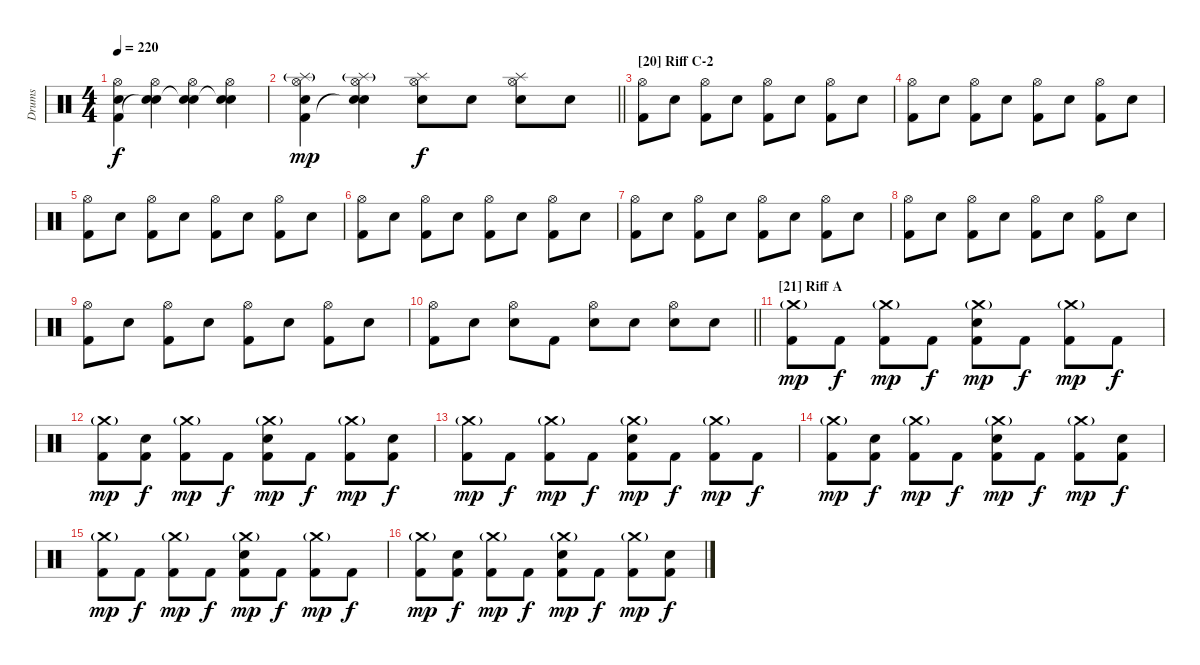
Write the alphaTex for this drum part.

\track ("Drums" "Drums") {instrument percussion}
\staff {score}
\articulation defaults
\ts (4 4)
\tempo 220
\clef neutral
\ks c
("Hi-Hat (open)" "Snare (hit) 2" "Kick (hit) 2"{t}).4{dy f} ("Hi-Hat (open)" "Snare (hit) 2" "Snare (hit)"{t}).4 ("Hi-Hat (open)" "Snare (hit) 2" "Snare (hit)"{t}).4 ("Hi-Hat (open)" "Snare (hit) 2" "Snare (hit)"{t}).4 |
\barLineRight lightlight
("Splash (hit)"{g} "Hi-Hat (open)" "Snare (hit) 2" "Kick (hit) 2").4{dy mp} ("Splash (hit)"{g} "Hi-Hat (open)" "Snare (hit) 2" "Snare (hit)"{t}).4 ("Splash (hit)" "Hi-Hat (open)" "Snare (hit) 2").8{dy f} "Snare (hit) 2".8 ("Splash (hit)" "Hi-Hat (open)" "Snare (hit) 2").8 "Snare (hit) 2".8 |
\section ("" "[20] Riff C-2")
("Hi-Hat (open)" "Kick (hit) 2").8 "Snare (hit) 2".8 ("Hi-Hat (open)" "Kick (hit) 2").8 "Snare (hit) 2".8 ("Hi-Hat (open)" "Kick (hit) 2").8 "Snare (hit) 2".8 ("Hi-Hat (open)" "Kick (hit) 2").8 "Snare (hit) 2".8 |
("Hi-Hat (open)" "Kick (hit) 2").8 "Snare (hit) 2".8 ("Hi-Hat (open)" "Kick (hit) 2").8 "Snare (hit) 2".8 ("Hi-Hat (open)" "Kick (hit) 2").8 "Snare (hit) 2".8 ("Hi-Hat (open)" "Kick (hit) 2").8 "Snare (hit) 2".8 |
("Hi-Hat (open)" "Kick (hit) 2").8 "Snare (hit) 2".8 ("Hi-Hat (open)" "Kick (hit) 2").8 "Snare (hit) 2".8 ("Hi-Hat (open)" "Kick (hit) 2").8 "Snare (hit) 2".8 ("Hi-Hat (open)" "Kick (hit) 2").8 "Snare (hit) 2".8 |
("Hi-Hat (open)" "Kick (hit) 2").8 "Snare (hit) 2".8 ("Hi-Hat (open)" "Kick (hit) 2").8 "Snare (hit) 2".8 ("Hi-Hat (open)" "Kick (hit) 2").8 "Snare (hit) 2".8 ("Hi-Hat (open)" "Kick (hit) 2").8 "Snare (hit) 2".8 |
("Hi-Hat (open)" "Kick (hit) 2").8 "Snare (hit) 2".8 ("Hi-Hat (open)" "Kick (hit) 2").8 "Snare (hit) 2".8 ("Hi-Hat (open)" "Kick (hit) 2").8 "Snare (hit) 2".8 ("Hi-Hat (open)" "Kick (hit) 2").8 "Snare (hit) 2".8 |
("Hi-Hat (open)" "Kick (hit) 2").8 "Snare (hit) 2".8 ("Hi-Hat (open)" "Kick (hit) 2").8 "Snare (hit) 2".8 ("Hi-Hat (open)" "Kick (hit) 2").8 "Snare (hit) 2".8 ("Hi-Hat (open)" "Kick (hit) 2").8 "Snare (hit) 2".8 |
("Hi-Hat (open)" "Kick (hit) 2").8 "Snare (hit) 2".8 ("Hi-Hat (open)" "Kick (hit) 2").8 "Snare (hit) 2".8 ("Hi-Hat (open)" "Kick (hit) 2").8 "Snare (hit) 2".8 ("Hi-Hat (open)" "Kick (hit) 2").8 "Snare (hit) 2".8 |
\barLineRight lightlight
("Hi-Hat (open)" "Kick (hit) 2").8 "Snare (hit) 2".8 ("Hi-Hat (open)" "Snare (hit) 2").8 "Kick (hit) 2".8 ("Hi-Hat (open)" "Snare (hit) 2").8 "Snare (hit) 2".8 ("Hi-Hat (open)" "Snare (hit) 2").8 "Snare (hit) 2".8 |
\section ("" "[21] Riff A")
("Crash medium (hit)"{g} "Kick (hit) 2").8{dy mp} "Kick (hit) 2".8{dy f} ("Crash medium (hit)"{g} "Kick (hit) 2").8{dy mp} "Kick (hit) 2".8{dy f} ("Crash medium (hit)"{g} "Snare (hit) 2" "Kick (hit) 2").8{dy mp} "Kick (hit) 2".8{dy f} ("Crash medium (hit)"{g} "Kick (hit) 2").8{dy mp} "Kick (hit) 2".8{dy f} |
("Crash medium (hit)"{g} "Kick (hit) 2").8{dy mp} ("Snare (hit) 2" "Kick (hit) 2").8{dy f} ("Crash medium (hit)"{g} "Kick (hit) 2").8{dy mp} "Kick (hit) 2".8{dy f} ("Crash medium (hit)"{g} "Snare (hit) 2" "Kick (hit) 2").8{dy mp} "Kick (hit) 2".8{dy f} ("Crash medium (hit)"{g} "Kick (hit) 2").8{dy mp} ("Snare (hit) 2" "Kick (hit) 2").8{dy f} |
("Crash medium (hit)"{g} "Kick (hit) 2").8{dy mp} "Kick (hit) 2".8{dy f} ("Crash medium (hit)"{g} "Kick (hit) 2").8{dy mp} "Kick (hit) 2".8{dy f} ("Crash medium (hit)"{g} "Snare (hit) 2" "Kick (hit) 2").8{dy mp} "Kick (hit) 2".8{dy f} ("Crash medium (hit)"{g} "Kick (hit) 2").8{dy mp} "Kick (hit) 2".8{dy f} |
("Crash medium (hit)"{g} "Kick (hit) 2").8{dy mp} ("Snare (hit) 2" "Kick (hit) 2").8{dy f} ("Crash medium (hit)"{g} "Kick (hit) 2").8{dy mp} "Kick (hit) 2".8{dy f} ("Crash medium (hit)"{g} "Snare (hit) 2" "Kick (hit) 2").8{dy mp} "Kick (hit) 2".8{dy f} ("Crash medium (hit)"{g} "Kick (hit) 2").8{dy mp} ("Snare (hit) 2" "Kick (hit) 2").8{dy f} |
("Crash medium (hit)"{g} "Kick (hit) 2").8{dy mp} "Kick (hit) 2".8{dy f} ("Crash medium (hit)"{g} "Kick (hit) 2").8{dy mp} "Kick (hit) 2".8{dy f} ("Crash medium (hit)"{g} "Snare (hit) 2" "Kick (hit) 2").8{dy mp} "Kick (hit) 2".8{dy f} ("Crash medium (hit)"{g} "Kick (hit) 2").8{dy mp} "Kick (hit) 2".8{dy f} |
("Crash medium (hit)"{g} "Kick (hit) 2").8{dy mp} ("Snare (hit) 2" "Kick (hit) 2").8{dy f} ("Crash medium (hit)"{g} "Kick (hit) 2").8{dy mp} "Kick (hit) 2".8{dy f} ("Crash medium (hit)"{g} "Snare (hit) 2" "Kick (hit) 2").8{dy mp} "Kick (hit) 2".8{dy f} ("Crash medium (hit)"{g} "Kick (hit) 2").8{dy mp} ("Snare (hit) 2" "Kick (hit) 2").8{dy f}
